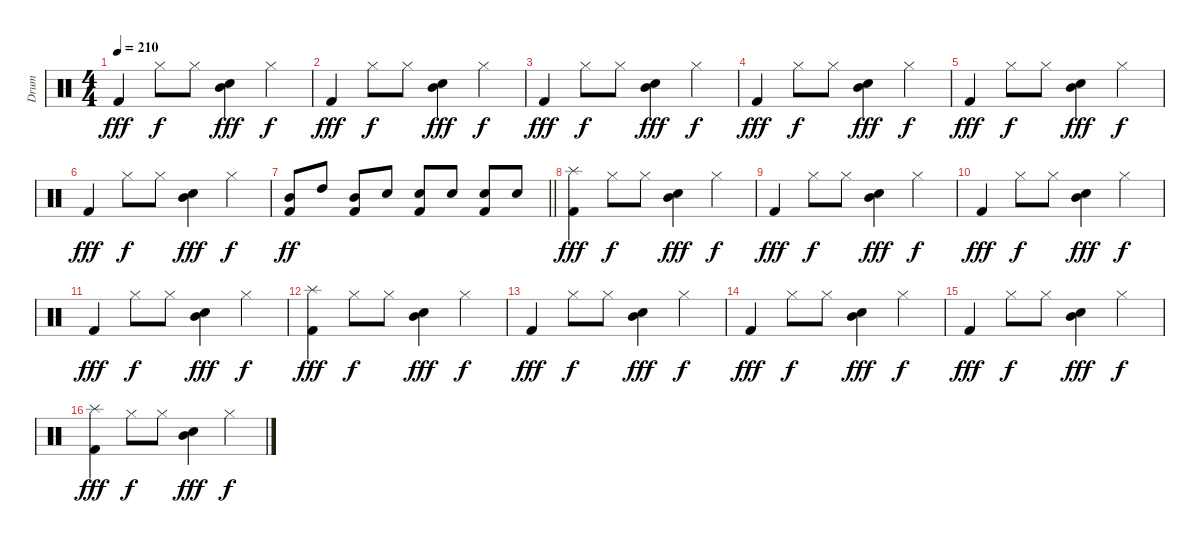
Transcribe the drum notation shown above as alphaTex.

\track ("Drum" "Drum") {instrument percussion}
\staff {score}
\articulation defaults
\ts (4 4)
\tempo 210
\clef neutral
\ks c "Kick (hit) 2".4{dy fff} "Hi-Hat (closed)".8{dy f} "Hi-Hat (closed)".8
("Snare (hit) 2" "Mid Tom (hit)").4{dy fff} "Hi-Hat (closed)".4{dy f} |
"Kick (hit) 2".4{dy fff} "Hi-Hat (closed)".8{dy f} "Hi-Hat (closed)".8 ("Snare (hit) 2" "Mid Tom (hit)").4{dy fff} "Hi-Hat (closed)".4{dy f} |
"Kick (hit) 2".4{dy fff} "Hi-Hat (closed)".8{dy f} "Hi-Hat (closed)".8 ("Snare (hit) 2" "Mid Tom (hit)").4{dy fff} "Hi-Hat (closed)".4{dy f} |
"Kick (hit) 2".4{dy fff} "Hi-Hat (closed)".8{dy f} "Hi-Hat (closed)".8 ("Snare (hit) 2" "Mid Tom (hit)").4{dy fff} "Hi-Hat (closed)".4{dy f} |
"Kick (hit) 2".4{dy fff} "Hi-Hat (closed)".8{dy f} "Hi-Hat (closed)".8 ("Snare (hit) 2" "Mid Tom (hit)").4{dy fff} "Hi-Hat (closed)".4{dy f} |
"Kick (hit) 2".4{dy fff} "Hi-Hat (closed)".8{dy f} "Hi-Hat (closed)".8 ("Snare (hit) 2" "Mid Tom (hit)").4{dy fff} "Hi-Hat (closed)".4{dy f} |
\barLineRight lightlight
("Kick (hit) 2" "Mid Tom (hit)").8{dy ff} "High Tom (hit)".8 ("Kick (hit) 2" "Mid Tom (hit)").8 "Snare (hit) 2".8 ("Kick (hit) 2" "Snare (hit) 2").8 "Snare (hit) 2".8 ("Kick (hit) 2" "Snare (hit) 2").8 "Snare (hit) 2".8 |
("Kick (hit) 2" "Splash (hit)").4{dy fff} "Hi-Hat (closed)".8{dy f} "Hi-Hat (closed)".8 ("Snare (hit) 2" "Mid Tom (hit)").4{dy fff} "Hi-Hat (closed)".4{dy f} |
"Kick (hit) 2".4{dy fff} "Hi-Hat (closed)".8{dy f} "Hi-Hat (closed)".8 ("Snare (hit) 2" "Mid Tom (hit)").4{dy fff} "Hi-Hat (closed)".4{dy f} |
"Kick (hit) 2".4{dy fff} "Hi-Hat (closed)".8{dy f} "Hi-Hat (closed)".8 ("Snare (hit) 2" "Mid Tom (hit)").4{dy fff} "Hi-Hat (closed)".4{dy f} |
"Kick (hit) 2".4{dy fff} "Hi-Hat (closed)".8{dy f} "Hi-Hat (closed)".8 ("Snare (hit) 2" "Mid Tom (hit)").4{dy fff} "Hi-Hat (closed)".4{dy f} |
("Kick (hit) 2" "Splash (hit)").4{dy fff} "Hi-Hat (closed)".8{dy f} "Hi-Hat (closed)".8 ("Snare (hit) 2" "Mid Tom (hit)").4{dy fff} "Hi-Hat (closed)".4{dy f} |
"Kick (hit) 2".4{dy fff} "Hi-Hat (closed)".8{dy f} "Hi-Hat (closed)".8 ("Snare (hit) 2" "Mid Tom (hit)").4{dy fff} "Hi-Hat (closed)".4{dy f} |
"Kick (hit) 2".4{dy fff} "Hi-Hat (closed)".8{dy f} "Hi-Hat (closed)".8 ("Snare (hit) 2" "Mid Tom (hit)").4{dy fff} "Hi-Hat (closed)".4{dy f} |
"Kick (hit) 2".4{dy fff} "Hi-Hat (closed)".8{dy f} "Hi-Hat (closed)".8 ("Snare (hit) 2" "Mid Tom (hit)").4{dy fff} "Hi-Hat (closed)".4{dy f} |
("Kick (hit) 2" "Splash (hit)").4{dy fff} "Hi-Hat (closed)".8{dy f} "Hi-Hat (closed)".8 ("Snare (hit) 2" "Mid Tom (hit)").4{dy fff} "Hi-Hat (closed)".4{dy f}
